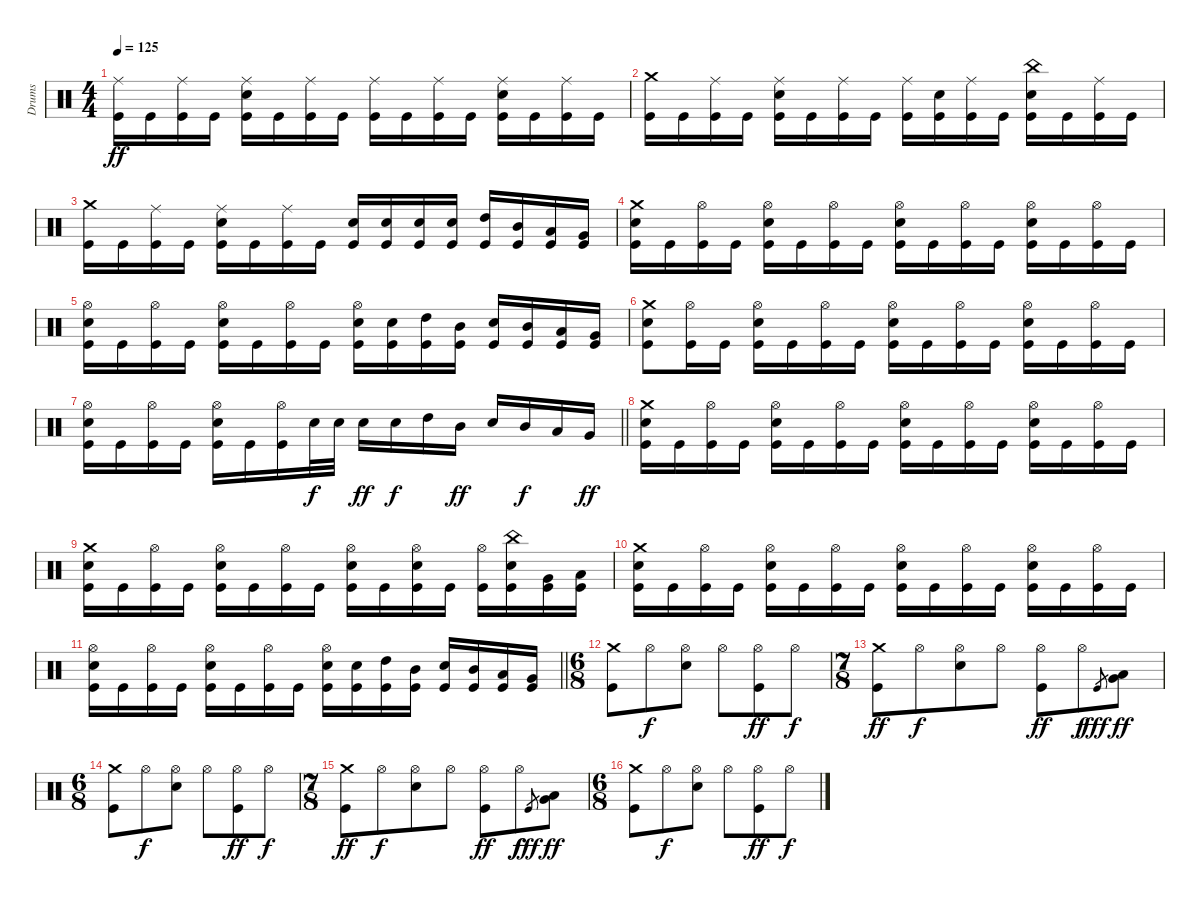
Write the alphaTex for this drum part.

\track ("Drums" "Drums") {instrument percussion}
\staff {score}
\articulation defaults
\ts (4 4)
\tempo 125
\clef neutral
\ks c
("Ride (middle)" "Kick (hit)").16{dy ff} "Kick (hit)".16 ("Ride (middle)" "Kick (hit)").16 "Kick (hit)".16 ("Ride (middle)" "Snare (hit) 2" "Kick (hit)").16 "Kick (hit)".16 ("Ride (middle)" "Kick (hit)").16 "Kick (hit)".16 ("Ride (middle)" "Kick (hit)").16 "Kick (hit)".16 ("Ride (middle)" "Kick (hit)").16 "Kick (hit)".16 ("Ride (middle)" "Snare (hit) 2" "Kick (hit)").16 "Kick (hit)".16 ("Ride (middle)" "Kick (hit)").16 "Kick (hit)".16 |
("Crash medium (hit)" "Kick (hit)").16 "Kick (hit)".16 ("Ride (middle)" "Kick (hit)").16 "Kick (hit)".16 ("Ride (middle)" "Snare (hit) 2" "Kick (hit)").16 "Kick (hit)".16 ("Ride (middle)" "Kick (hit)").16 "Kick (hit)".16 ("Ride (middle)" "Kick (hit)").16 ("Snare (hit) 2" "Kick (hit)").16 ("Ride (middle)" "Kick (hit)").16 "Kick (hit)".16 ("China (hit)" "Snare (hit) 2" "Kick (hit)").16 "Kick (hit)".16 ("Ride (middle)" "Kick (hit)").16 "Kick (hit)".16 |
("Crash medium (hit)" "Kick (hit)").16 "Kick (hit)".16 ("Ride (middle)" "Kick (hit)").16 "Kick (hit)".16 ("Ride (middle)" "Snare (hit) 2" "Kick (hit)").16 "Kick (hit)".16 ("Ride (middle)" "Kick (hit)").16 "Kick (hit)".16 ("Snare (hit) 2" "Kick (hit)").16 ("Snare (hit) 2" "Kick (hit)").16 ("Snare (hit) 2" "Kick (hit)").16 ("Snare (hit) 2" "Kick (hit)").16 ("High Tom (hit)" "Kick (hit)").16 ("Mid Tom (hit)" "Kick (hit)").16 ("Low Tom (hit)" "Kick (hit)").16 ("Very Low Tom (hit)" "Kick (hit)").16 |
("Crash medium (hit)" "Snare (hit) 2" "Kick (hit)").16 "Kick (hit)".16 ("Hi-Hat (open)" "Kick (hit)").16 "Kick (hit)".16 ("Hi-Hat (open)" "Snare (hit) 2" "Kick (hit)").16 "Kick (hit)".16 ("Hi-Hat (open)" "Kick (hit)").16 "Kick (hit)".16 ("Hi-Hat (open)" "Snare (hit) 2" "Kick (hit)").16 "Kick (hit)".16 ("Hi-Hat (open)" "Kick (hit)").16 "Kick (hit)".16 ("Hi-Hat (open)" "Snare (hit) 2" "Kick (hit)").16 "Kick (hit)".16 ("Hi-Hat (open)" "Kick (hit)").16 "Kick (hit)".16 |
("Hi-Hat (open)" "Snare (hit) 2" "Kick (hit)").16 "Kick (hit)".16 ("Hi-Hat (open)" "Kick (hit)").16 "Kick (hit)".16 ("Hi-Hat (open)" "Snare (hit) 2" "Kick (hit)").16 "Kick (hit)".16 ("Hi-Hat (open)" "Kick (hit)").16 "Kick (hit)".16 ("Hi-Hat (open)" "Snare (hit) 2" "Kick (hit)").16 ("Snare (hit) 2" "Kick (hit)").16 ("High Tom (hit)" "Kick (hit)").16 ("Mid Tom (hit)" "Kick (hit)").16 ("Snare (hit) 2" "Kick (hit)").16 ("Mid Tom (hit)" "Kick (hit)").16 ("Low Tom (hit)" "Kick (hit)").16 ("Very Low Tom (hit)" "Kick (hit)").16 |
("Crash medium (hit)" "Snare (hit) 2" "Kick (hit)").8 ("Hi-Hat (open)" "Kick (hit)").16 "Kick (hit)".16 ("Hi-Hat (open)" "Snare (hit) 2" "Kick (hit)").16 "Kick (hit)".16 ("Hi-Hat (open)" "Kick (hit)").16 "Kick (hit)".16 ("Hi-Hat (open)" "Snare (hit) 2" "Kick (hit)").16 "Kick (hit)".16 ("Hi-Hat (open)" "Kick (hit)").16 "Kick (hit)".16 ("Hi-Hat (open)" "Snare (hit) 2" "Kick (hit)").16 "Kick (hit)".16 ("Hi-Hat (open)" "Kick (hit)").16 "Kick (hit)".16 |
\barLineRight lightlight
("Hi-Hat (open)" "Snare (hit) 2" "Kick (hit)").16 "Kick (hit)".16 ("Hi-Hat (open)" "Kick (hit)").16 "Kick (hit)".16 ("Hi-Hat (open)" "Snare (hit) 2" "Kick (hit)").16 "Kick (hit)".16 ("Hi-Hat (open)" "Kick (hit)").16 "Snare (hit) 2".32{dy f} "Snare (hit) 2".32 "Snare (hit) 2".16{dy ff} "Snare (hit) 2".16{dy f} "High Tom (hit)".16 "Mid Tom (hit)".16{dy ff} "Snare (hit) 2".16 "Mid Tom (hit)".16{dy f} "Low Tom (hit)".16 "Very Low Tom (hit)".16{dy ff} |
("Crash medium (hit)" "Snare (hit) 2" "Kick (hit)").16 "Kick (hit)".16 ("Hi-Hat (open)" "Kick (hit)").16 "Kick (hit)".16 ("Hi-Hat (open)" "Snare (hit) 2" "Kick (hit)").16 "Kick (hit)".16 ("Hi-Hat (open)" "Kick (hit)").16 "Kick (hit)".16 ("Hi-Hat (open)" "Snare (hit) 2" "Kick (hit)").16 "Kick (hit)".16 ("Hi-Hat (open)" "Kick (hit)").16 "Kick (hit)".16 ("Hi-Hat (open)" "Snare (hit) 2" "Kick (hit)").16 "Kick (hit)".16 ("Hi-Hat (open)" "Kick (hit)").16 "Kick (hit)".16 |
("Crash medium (hit)" "Snare (hit) 2" "Kick (hit)").16 "Kick (hit)".16 ("Hi-Hat (open)" "Kick (hit)").16 "Kick (hit)".16 ("Hi-Hat (open)" "Snare (hit) 2" "Kick (hit)").16 "Kick (hit)".16 ("Hi-Hat (open)" "Kick (hit)").16 "Kick (hit)".16 ("Hi-Hat (open)" "Snare (hit) 2" "Kick (hit)").16 "Kick (hit)".16 ("Hi-Hat (open)" "Snare (hit) 2" "Kick (hit)").16 "Kick (hit)".16 ("Hi-Hat (open)" "Kick (hit)").16 ("China (hit)" "Snare (hit) 2" "Kick (hit)").16 ("Very Low Tom (hit)" "Kick (hit)").16 ("Low Floor Tom (hit)" "Kick (hit)").16 |
("Crash medium (hit)" "Snare (hit) 2" "Kick (hit)").16 "Kick (hit)".16 ("Hi-Hat (open)" "Kick (hit)").16 "Kick (hit)".16 ("Hi-Hat (open)" "Snare (hit) 2" "Kick (hit)").16 "Kick (hit)".16 ("Hi-Hat (open)" "Kick (hit)").16 "Kick (hit)".16 ("Hi-Hat (open)" "Snare (hit) 2" "Kick (hit)").16 "Kick (hit)".16 ("Hi-Hat (open)" "Kick (hit)").16 "Kick (hit)".16 ("Hi-Hat (open)" "Snare (hit) 2" "Kick (hit)").16 "Kick (hit)".16 ("Hi-Hat (open)" "Kick (hit)").16 "Kick (hit)".16 |
\barLineRight lightlight
("Hi-Hat (open)" "Snare (hit) 2" "Kick (hit)").16 "Kick (hit)".16 ("Hi-Hat (open)" "Kick (hit)").16 "Kick (hit)".16 ("Hi-Hat (open)" "Snare (hit) 2" "Kick (hit)").16 "Kick (hit)".16 ("Hi-Hat (open)" "Kick (hit)").16 "Kick (hit)".16 ("Hi-Hat (open)" "Snare (hit) 2" "Kick (hit)").16 ("Snare (hit) 2" "Kick (hit)").16 ("High Tom (hit)" "Kick (hit)").16 ("Mid Tom (hit)" "Kick (hit)").16 ("Snare (hit) 2" "Kick (hit)").16 ("Mid Tom (hit)" "Kick (hit)").16 ("Low Tom (hit)" "Kick (hit)").16 ("Very Low Tom (hit)" "Kick (hit)").16 |
\ts (6 8)
("Crash medium (hit)" "Kick (hit)").8 "Hi-Hat (open)".8{dy f} ("Hi-Hat (open)" "Snare (hit) 2").8 "Hi-Hat (open)".8 ("Hi-Hat (open)" "Kick (hit)").8{dy ff} "Hi-Hat (open)".8{dy f} |
\ts (7 8)
("Crash medium (hit)" "Kick (hit)").8{dy ff} "Hi-Hat (open)".8{dy f} ("Hi-Hat (open)" "Snare (hit) 2").8 "Hi-Hat (open)".8 ("Hi-Hat (open)" "Kick (hit)").8{dy ff} "Hi-Hat (open)".8{dy f} "Kick (hit)".8{gr dy fff} ("Very Low Tom (hit)" "Low Floor Tom (hit)").8{dy ff} |
\ts (6 8)
("Crash medium (hit)" "Kick (hit)").8 "Hi-Hat (open)".8{dy f} ("Hi-Hat (open)" "Snare (hit) 2").8 "Hi-Hat (open)".8 ("Hi-Hat (open)" "Kick (hit)").8{dy ff} "Hi-Hat (open)".8{dy f} |
\ts (7 8)
("Crash medium (hit)" "Kick (hit)").8{dy ff} "Hi-Hat (open)".8{dy f} ("Hi-Hat (open)" "Snare (hit) 2").8 "Hi-Hat (open)".8 ("Hi-Hat (open)" "Kick (hit)").8{dy ff} "Hi-Hat (open)".8{dy f} "Kick (hit)".8{gr dy fff} ("Very Low Tom (hit)" "Low Floor Tom (hit)").8{dy ff} |
\ts (6 8)
("Crash medium (hit)" "Kick (hit)").8 "Hi-Hat (open)".8{dy f} ("Hi-Hat (open)" "Snare (hit) 2").8 "Hi-Hat (open)".8 ("Hi-Hat (open)" "Kick (hit)").8{dy ff} "Hi-Hat (open)".8{dy f}
